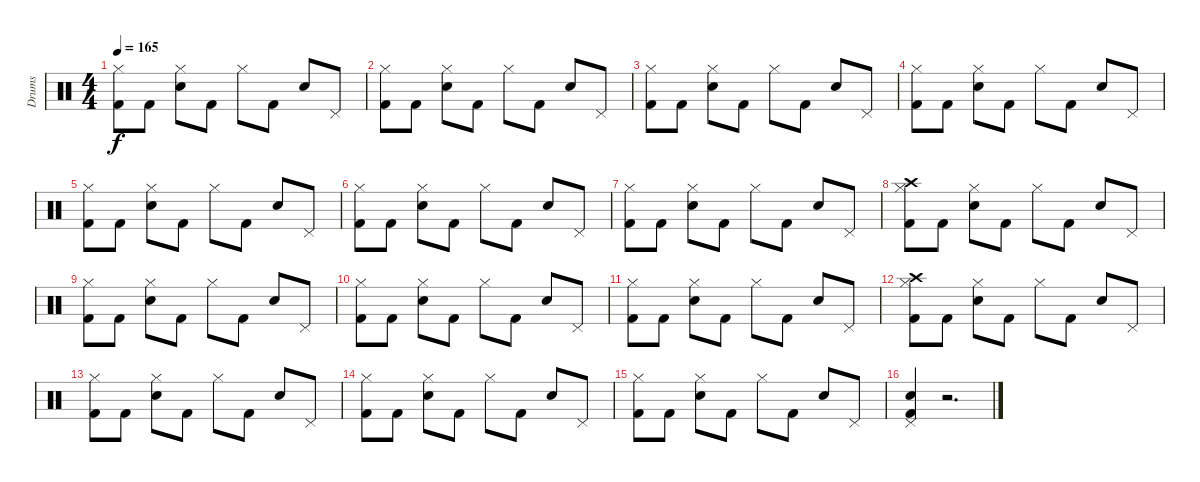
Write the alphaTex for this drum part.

\track ("Drums" "Drums") {instrument percussion}
\staff {score}
\articulation defaults
\ts (4 4)
\tempo 165
\clef neutral
\ks c
("Kick (hit) 2" "Hi-Hat (closed)").8{dy f} "Kick (hit) 2".8 ("Snare (hit) 2" "Hi-Hat (closed)").8 "Kick (hit) 2".8 "Hi-Hat (closed)".8 "Kick (hit) 2".8 "Snare (hit) 2".8 "Pedal Hi-Hat (hit)".8 |
("Kick (hit) 2" "Hi-Hat (closed)").8 "Kick (hit) 2".8 ("Snare (hit) 2" "Hi-Hat (closed)").8 "Kick (hit) 2".8 "Hi-Hat (closed)".8 "Kick (hit) 2".8 "Snare (hit) 2".8 "Pedal Hi-Hat (hit)".8 |
("Kick (hit) 2" "Hi-Hat (closed)").8 "Kick (hit) 2".8 ("Snare (hit) 2" "Hi-Hat (closed)").8 "Kick (hit) 2".8 "Hi-Hat (closed)".8 "Kick (hit) 2".8 "Snare (hit) 2".8 "Pedal Hi-Hat (hit)".8 |
("Kick (hit) 2" "Hi-Hat (closed)").8 "Kick (hit) 2".8 ("Snare (hit) 2" "Hi-Hat (closed)").8 "Kick (hit) 2".8 "Hi-Hat (closed)".8 "Kick (hit) 2".8 "Snare (hit) 2".8 "Pedal Hi-Hat (hit)".8 |
("Kick (hit) 2" "Hi-Hat (closed)").8 "Kick (hit) 2".8 ("Snare (hit) 2" "Hi-Hat (closed)").8 "Kick (hit) 2".8 "Hi-Hat (closed)".8 "Kick (hit) 2".8 "Snare (hit) 2".8 "Pedal Hi-Hat (hit)".8 |
("Kick (hit) 2" "Hi-Hat (closed)").8 "Kick (hit) 2".8 ("Snare (hit) 2" "Hi-Hat (closed)").8 "Kick (hit) 2".8 "Hi-Hat (closed)".8 "Kick (hit) 2".8 "Snare (hit) 2".8 "Pedal Hi-Hat (hit)".8 |
("Kick (hit) 2" "Hi-Hat (closed)").8 "Kick (hit) 2".8 ("Snare (hit) 2" "Hi-Hat (closed)").8 "Kick (hit) 2".8 "Hi-Hat (closed)".8 "Kick (hit) 2".8 "Snare (hit) 2".8 "Pedal Hi-Hat (hit)".8 |
("Crash high (hit)" "Kick (hit) 2" "Hi-Hat (closed)").8 "Kick (hit) 2".8 ("Snare (hit) 2" "Hi-Hat (closed)").8 "Kick (hit) 2".8 "Hi-Hat (closed)".8 "Kick (hit) 2".8 "Snare (hit) 2".8 "Pedal Hi-Hat (hit)".8 |
("Kick (hit) 2" "Hi-Hat (closed)").8 "Kick (hit) 2".8 ("Snare (hit) 2" "Hi-Hat (closed)").8 "Kick (hit) 2".8 "Hi-Hat (closed)".8 "Kick (hit) 2".8 "Snare (hit) 2".8 "Pedal Hi-Hat (hit)".8 |
("Kick (hit) 2" "Hi-Hat (closed)").8 "Kick (hit) 2".8 ("Snare (hit) 2" "Hi-Hat (closed)").8 "Kick (hit) 2".8 "Hi-Hat (closed)".8 "Kick (hit) 2".8 "Snare (hit) 2".8 "Pedal Hi-Hat (hit)".8 |
("Kick (hit) 2" "Hi-Hat (closed)").8 "Kick (hit) 2".8 ("Snare (hit) 2" "Hi-Hat (closed)").8 "Kick (hit) 2".8 "Hi-Hat (closed)".8 "Kick (hit) 2".8 "Snare (hit) 2".8 "Pedal Hi-Hat (hit)".8 |
("Crash high (hit)" "Kick (hit) 2" "Hi-Hat (closed)").8 "Kick (hit) 2".8 ("Snare (hit) 2" "Hi-Hat (closed)").8 "Kick (hit) 2".8 "Hi-Hat (closed)".8 "Kick (hit) 2".8 "Snare (hit) 2".8 "Pedal Hi-Hat (hit)".8 |
("Kick (hit) 2" "Hi-Hat (closed)").8 "Kick (hit) 2".8 ("Snare (hit) 2" "Hi-Hat (closed)").8 "Kick (hit) 2".8 "Hi-Hat (closed)".8 "Kick (hit) 2".8 "Snare (hit) 2".8 "Pedal Hi-Hat (hit)".8 |
("Kick (hit) 2" "Hi-Hat (closed)").8 "Kick (hit) 2".8 ("Snare (hit) 2" "Hi-Hat (closed)").8 "Kick (hit) 2".8 "Hi-Hat (closed)".8 "Kick (hit) 2".8 "Snare (hit) 2".8 "Pedal Hi-Hat (hit)".8 |
("Kick (hit) 2" "Hi-Hat (closed)").8 "Kick (hit) 2".8 ("Snare (hit) 2" "Hi-Hat (closed)").8 "Kick (hit) 2".8 "Hi-Hat (closed)".8 "Kick (hit) 2".8 "Snare (hit) 2".8 "Pedal Hi-Hat (hit)".8 |
("Snare (hit) 2" "Kick (hit) 2" "Pedal Hi-Hat (hit)").4 r.2{d}
